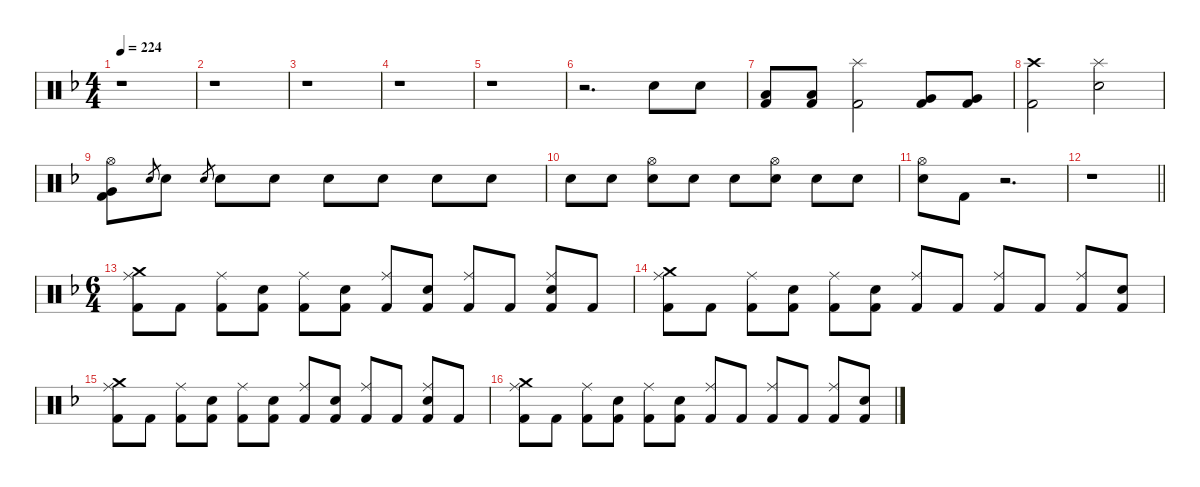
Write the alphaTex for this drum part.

\hideDynamics
\bracketExtendMode nobrackets
\singleTrackTrackNamePolicy hidden
\multiTrackTrackNamePolicy hidden
\firstSystemTrackNameMode fullname
\firstSystemTrackNameOrientation horizontal
\otherSystemsTrackNameOrientation horizontal
\track ("Drumkit" "Drums") {defaultSystemsLayout 4 instrument percussion}
\staff {score}
\articulation defaults
\ts (4 4)
\tempo 224
\clef neutral
\ks dminor
r.1{dy mf beam Down} |
r.1{beam Down} |
r.1{beam Down} |
r.1{beam Down} |
r.1{beam Down} |
r.2{d beam Down} "Snare (hit) 2"{acc forcenatural}.8{dy f beam Down} "Snare (hit) 2"{acc forcenatural}.8{beam Down} |
("Low Tom (hit)"{acc forcenatural} "Kick (hit) 2"{acc forcenatural}).8{beam Up} ("Low Tom (hit)"{acc forcenatural} "Kick (hit) 2"{acc forcenatural}).8{beam Up} ("Splash (hit)"{acc forcenatural} "Kick (hit) 2"{acc forcenatural}).2{beam Down} ("Very Low Tom (hit)"{acc forcenatural} "Kick (hit) 2"{acc forcenatural}).8{beam Up} ("Very Low Tom (hit)"{acc forcenatural} "Kick (hit) 2"{acc forcenatural}).8{beam Up} |
("Crash high (hit)"{acc forcenatural} "Kick (hit) 2"{acc forcenatural}).2{beam Down} ("Splash (hit)"{acc forcenatural} "Snare (hit) 2"{acc forcenatural}).2{dy mf beam Down} |
("Hi-Hat (open)"{acc forcenatural} "Very Low Tom (hit)"{acc forcenatural} "Kick (hit) 2"{acc forcenatural}).8{dy f beam Down} "Snare (hit) 2"{acc forcenatural}.8{gr dy mf beam Up} "Snare (hit) 2"{acc forcenatural}.8{beam Down} "Snare (hit) 2"{acc forcenatural}.8{gr dy pp beam Up} "Snare (hit) 2"{acc forcenatural}.8{dy mp beam Down} "Snare (hit) 2"{acc forcenatural}.8{beam Down} "Snare (hit) 2"{acc forcenatural}.8{beam Down} "Snare (hit) 2"{acc forcenatural}.8{beam Down} "Snare (hit) 2"{acc forcenatural}.8{dy mf beam Down} "Snare (hit) 2"{acc forcenatural}.8{beam Down} |
"Snare (hit) 2"{acc forcenatural}.8{dy f beam Down} "Snare (hit) 2"{acc forcenatural}.8{dy mf beam Down} ("Snare (hit) 2"{acc forcenatural} "Hi-Hat (open)"{acc forcenatural}).8{dy p beam Down} "Snare (hit) 2"{acc forcenatural}.8{dy f beam Down} "Snare (hit) 2"{acc forcenatural}.8{dy mf beam Down} ("Snare (hit) 2"{acc forcenatural} "Hi-Hat (open)"{acc forcenatural}).8{dy p beam Down} "Snare (hit) 2"{acc forcenatural}.8{dy mf beam Down} "Snare (hit) 2"{acc forcenatural}.8{beam Down} |
("Hi-Hat (open)"{acc forcenatural} "Snare (hit) 2"{acc forcenatural}).8{dy f beam Down} "Kick (hit) 2"{acc forcenatural}.8{beam Down} r.2{d beam Down} |
\barLineRight lightlight
r.1{beam Down} |
\ts (6 4)
("Ride (middle)"{acc forcenatural} "Crash medium (hit)"{acc forcenatural} "Kick (hit) 2"{acc forcenatural}).8{dy mf beam Down} "Kick (hit) 2"{acc forcenatural}.8{dy f beam Down} ("Ride (middle)"{acc forcenatural} "Kick (hit) 2"{acc forcenatural}).8{dy mf beam Down} ("Snare (hit) 2"{acc forcenatural} "Kick (hit) 2"{acc forcenatural}).8{dy f beam Down} ("Ride (middle)"{acc forcenatural} "Kick (hit) 2"{acc forcenatural}).8{dy mf beam Down} ("Snare (hit) 2"{acc forcenatural} "Kick (hit) 2"{acc forcenatural}).8{dy f beam Down} ("Ride (middle)"{acc forcenatural} "Kick (hit) 2"{acc forcenatural}).8{dy mf beam Up} ("Snare (hit) 2"{acc forcenatural} "Kick (hit) 2"{acc forcenatural}).8{dy f beam Up} ("Ride (middle)"{acc forcenatural} "Kick (hit) 2"{acc forcenatural}).8{dy mf beam Up} "Kick (hit) 2"{acc forcenatural}.8{dy f beam Up} ("Ride (middle)"{acc forcenatural} "Snare (hit) 2"{acc forcenatural} "Kick (hit) 2"{acc forcenatural}).8{dy mf beam Up} "Kick (hit) 2"{acc forcenatural}.8{dy f beam Up} |
("Ride (middle)"{acc forcenatural} "Crash medium (hit)"{acc forcenatural} "Kick (hit) 2"{acc forcenatural}).8{dy mf beam Down} "Kick (hit) 2"{acc forcenatural}.8{dy f beam Down} ("Ride (middle)"{acc forcenatural} "Kick (hit) 2"{acc forcenatural}).8{dy mf beam Down} ("Snare (hit) 2"{acc forcenatural} "Kick (hit) 2"{acc forcenatural}).8{dy f beam Down} ("Ride (middle)"{acc forcenatural} "Kick (hit) 2"{acc forcenatural}).8{dy mf beam Down} ("Snare (hit) 2"{acc forcenatural} "Kick (hit) 2"{acc forcenatural}).8{dy f beam Down} ("Ride (middle)"{acc forcenatural} "Kick (hit) 2"{acc forcenatural}).8{dy mf beam Up} "Kick (hit) 2"{acc forcenatural}.8{dy f beam Up} ("Ride (middle)"{acc forcenatural} "Kick (hit) 2"{acc forcenatural}).8{dy mf beam Up} "Kick (hit) 2"{acc forcenatural}.8{dy f beam Up} ("Ride (middle)"{acc forcenatural} "Kick (hit) 2"{acc forcenatural}).8{dy mf beam Up} ("Snare (hit) 2"{acc forcenatural} "Kick (hit) 2"{acc forcenatural}).8{dy f beam Up} |
("Ride (middle)"{acc forcenatural} "Crash medium (hit)"{acc forcenatural} "Kick (hit) 2"{acc forcenatural}).8{dy mf beam Down} "Kick (hit) 2"{acc forcenatural}.8{dy f beam Down} ("Ride (middle)"{acc forcenatural} "Kick (hit) 2"{acc forcenatural}).8{dy mf beam Down} ("Snare (hit) 2"{acc forcenatural} "Kick (hit) 2"{acc forcenatural}).8{dy f beam Down} ("Ride (middle)"{acc forcenatural} "Kick (hit) 2"{acc forcenatural}).8{dy mf beam Down} ("Snare (hit) 2"{acc forcenatural} "Kick (hit) 2"{acc forcenatural}).8{dy f beam Down} ("Ride (middle)"{acc forcenatural} "Kick (hit) 2"{acc forcenatural}).8{dy mf beam Up} ("Snare (hit) 2"{acc forcenatural} "Kick (hit) 2"{acc forcenatural}).8{dy f beam Up} ("Ride (middle)"{acc forcenatural} "Kick (hit) 2"{acc forcenatural}).8{dy mf beam Up} "Kick (hit) 2"{acc forcenatural}.8{dy f beam Up} ("Ride (middle)"{acc forcenatural} "Snare (hit) 2"{acc forcenatural} "Kick (hit) 2"{acc forcenatural}).8{dy mf beam Up} "Kick (hit) 2"{acc forcenatural}.8{dy f beam Up} |
("Ride (middle)"{acc forcenatural} "Crash medium (hit)"{acc forcenatural} "Kick (hit) 2"{acc forcenatural}).8{dy mf beam Down} "Kick (hit) 2"{acc forcenatural}.8{dy f beam Down} ("Ride (middle)"{acc forcenatural} "Kick (hit) 2"{acc forcenatural}).8{dy mf beam Down} ("Snare (hit) 2"{acc forcenatural} "Kick (hit) 2"{acc forcenatural}).8{dy f beam Down} ("Ride (middle)"{acc forcenatural} "Kick (hit) 2"{acc forcenatural}).8{dy mf beam Down} ("Snare (hit) 2"{acc forcenatural} "Kick (hit) 2"{acc forcenatural}).8{dy f beam Down} ("Ride (middle)"{acc forcenatural} "Kick (hit) 2"{acc forcenatural}).8{dy mf beam Up} "Kick (hit) 2"{acc forcenatural}.8{dy f beam Up} ("Ride (middle)"{acc forcenatural} "Kick (hit) 2"{acc forcenatural}).8{dy mf beam Up} "Kick (hit) 2"{acc forcenatural}.8{dy f beam Up} ("Ride (middle)"{acc forcenatural} "Kick (hit) 2"{acc forcenatural}).8{dy mf beam Up} ("Snare (hit) 2"{acc forcenatural} "Kick (hit) 2"{acc forcenatural}).8{dy f beam Up}
